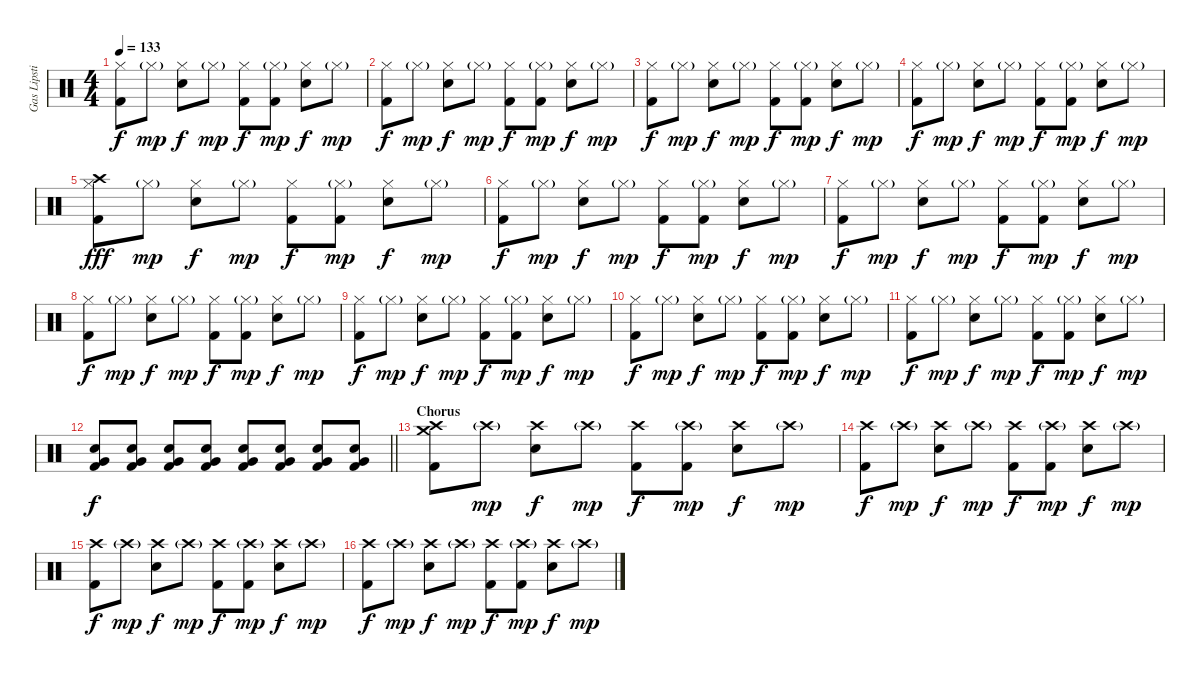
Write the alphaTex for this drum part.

\track ("Gas Lipstick (Drums)" "Gas Lipsti") {instrument percussion}
\staff {score}
\articulation defaults
\ts (4 4)
\tempo 133
\clef neutral
\ks c
("Hi-Hat (closed)" "Kick (hit) 2").8{dy f} "Hi-Hat (closed)"{g}.8{dy mp} ("Hi-Hat (closed)" "Snare (hit) 2").8{dy f} "Hi-Hat (closed)"{g}.8{dy mp} ("Hi-Hat (closed)" "Kick (hit) 2").8{dy f} ("Hi-Hat (closed)"{g} "Kick (hit) 2").8{dy mp} ("Hi-Hat (closed)" "Snare (hit) 2").8{dy f} "Hi-Hat (closed)"{g}.8{dy mp} |
("Hi-Hat (closed)" "Kick (hit) 2").8{dy f} "Hi-Hat (closed)"{g}.8{dy mp} ("Hi-Hat (closed)" "Snare (hit) 2").8{dy f} "Hi-Hat (closed)"{g}.8{dy mp} ("Hi-Hat (closed)" "Kick (hit) 2").8{dy f} ("Hi-Hat (closed)"{g} "Kick (hit) 2").8{dy mp} ("Hi-Hat (closed)" "Snare (hit) 2").8{dy f} "Hi-Hat (closed)"{g}.8{dy mp} |
("Hi-Hat (closed)" "Kick (hit) 2").8{dy f} "Hi-Hat (closed)"{g}.8{dy mp} ("Hi-Hat (closed)" "Snare (hit) 2").8{dy f} "Hi-Hat (closed)"{g}.8{dy mp} ("Hi-Hat (closed)" "Kick (hit) 2").8{dy f} ("Hi-Hat (closed)"{g} "Kick (hit) 2").8{dy mp} ("Hi-Hat (closed)" "Snare (hit) 2").8{dy f} "Hi-Hat (closed)"{g}.8{dy mp} |
("Hi-Hat (closed)" "Kick (hit) 2").8{dy f} "Hi-Hat (closed)"{g}.8{dy mp} ("Hi-Hat (closed)" "Snare (hit) 2").8{dy f} "Hi-Hat (closed)"{g}.8{dy mp} ("Hi-Hat (closed)" "Kick (hit) 2").8{dy f} ("Hi-Hat (closed)"{g} "Kick (hit) 2").8{dy mp} ("Hi-Hat (closed)" "Snare (hit) 2").8{dy f} "Hi-Hat (closed)"{g}.8{dy mp} |
("Crash high (hit)" "Hi-Hat (closed)" "Kick (hit) 2").8{dy fff} "Hi-Hat (closed)"{g}.8{dy mp} ("Hi-Hat (closed)" "Snare (hit) 2").8{dy f} "Hi-Hat (closed)"{g}.8{dy mp} ("Hi-Hat (closed)" "Kick (hit) 2").8{dy f} ("Hi-Hat (closed)"{g} "Kick (hit) 2").8{dy mp} ("Hi-Hat (closed)" "Snare (hit) 2").8{dy f} "Hi-Hat (closed)"{g}.8{dy mp} |
("Hi-Hat (closed)" "Kick (hit) 2").8{dy f} "Hi-Hat (closed)"{g}.8{dy mp} ("Hi-Hat (closed)" "Snare (hit) 2").8{dy f} "Hi-Hat (closed)"{g}.8{dy mp} ("Hi-Hat (closed)" "Kick (hit) 2").8{dy f} ("Hi-Hat (closed)"{g} "Kick (hit) 2").8{dy mp} ("Hi-Hat (closed)" "Snare (hit) 2").8{dy f} "Hi-Hat (closed)"{g}.8{dy mp} |
("Hi-Hat (closed)" "Kick (hit) 2").8{dy f} "Hi-Hat (closed)"{g}.8{dy mp} ("Hi-Hat (closed)" "Snare (hit) 2").8{dy f} "Hi-Hat (closed)"{g}.8{dy mp} ("Hi-Hat (closed)" "Kick (hit) 2").8{dy f} ("Hi-Hat (closed)"{g} "Kick (hit) 2").8{dy mp} ("Hi-Hat (closed)" "Snare (hit) 2").8{dy f} "Hi-Hat (closed)"{g}.8{dy mp} |
("Hi-Hat (closed)" "Kick (hit) 2").8{dy f} "Hi-Hat (closed)"{g}.8{dy mp} ("Hi-Hat (closed)" "Snare (hit) 2").8{dy f} "Hi-Hat (closed)"{g}.8{dy mp} ("Hi-Hat (closed)" "Kick (hit) 2").8{dy f} ("Hi-Hat (closed)"{g} "Kick (hit) 2").8{dy mp} ("Hi-Hat (closed)" "Snare (hit) 2").8{dy f} "Hi-Hat (closed)"{g}.8{dy mp} |
("Hi-Hat (closed)" "Kick (hit) 2").8{dy f} "Hi-Hat (closed)"{g}.8{dy mp} ("Hi-Hat (closed)" "Snare (hit) 2").8{dy f} "Hi-Hat (closed)"{g}.8{dy mp} ("Hi-Hat (closed)" "Kick (hit) 2").8{dy f} ("Hi-Hat (closed)"{g} "Kick (hit) 2").8{dy mp} ("Hi-Hat (closed)" "Snare (hit) 2").8{dy f} "Hi-Hat (closed)"{g}.8{dy mp} |
("Hi-Hat (closed)" "Kick (hit) 2").8{dy f} "Hi-Hat (closed)"{g}.8{dy mp} ("Hi-Hat (closed)" "Snare (hit) 2").8{dy f} "Hi-Hat (closed)"{g}.8{dy mp} ("Hi-Hat (closed)" "Kick (hit) 2").8{dy f} ("Hi-Hat (closed)"{g} "Kick (hit) 2").8{dy mp} ("Hi-Hat (closed)" "Snare (hit) 2").8{dy f} "Hi-Hat (closed)"{g}.8{dy mp} |
("Hi-Hat (closed)" "Kick (hit) 2").8{dy f} "Hi-Hat (closed)"{g}.8{dy mp} ("Hi-Hat (closed)" "Snare (hit) 2").8{dy f} "Hi-Hat (closed)"{g}.8{dy mp} ("Hi-Hat (closed)" "Kick (hit) 2").8{dy f} ("Hi-Hat (closed)"{g} "Kick (hit) 2").8{dy mp} ("Hi-Hat (closed)" "Snare (hit) 2").8{dy f} "Hi-Hat (closed)"{g}.8{dy mp} |
\barLineRight lightlight
("Very Low Tom (hit)" "Snare (hit) 2" "Kick (hit) 2").8{dy f} ("Very Low Tom (hit)" "Snare (hit) 2" "Kick (hit) 2").8 ("Very Low Tom (hit)" "Snare (hit) 2" "Kick (hit) 2").8 ("Very Low Tom (hit)" "Snare (hit) 2" "Kick (hit) 2").8 ("Very Low Tom (hit)" "Snare (hit) 2" "Kick (hit) 2").8 ("Very Low Tom (hit)" "Snare (hit) 2" "Kick (hit) 2").8 ("Very Low Tom (hit)" "Snare (hit) 2" "Kick (hit) 2").8 ("Very Low Tom (hit)" "Snare (hit) 2" "Kick (hit) 2").8 |
\section ("" "Chorus")
("Crash medium (hit)" "Crash high (hit)" "Kick (hit) 2").8 "Crash high (hit)"{g}.8{dy mp} ("Crash high (hit)" "Snare (hit) 2").8{dy f} "Crash high (hit)"{g}.8{dy mp} ("Crash high (hit)" "Kick (hit) 2").8{dy f} ("Crash high (hit)"{g} "Kick (hit) 2").8{dy mp} ("Crash high (hit)" "Snare (hit) 2").8{dy f} "Crash high (hit)"{g}.8{dy mp} |
("Crash high (hit)" "Kick (hit) 2").8{dy f} "Crash high (hit)"{g}.8{dy mp} ("Crash high (hit)" "Snare (hit) 2").8{dy f} "Crash high (hit)"{g}.8{dy mp} ("Crash high (hit)" "Kick (hit) 2").8{dy f} ("Crash high (hit)"{g} "Kick (hit) 2").8{dy mp} ("Crash high (hit)" "Snare (hit) 2").8{dy f} "Crash high (hit)"{g}.8{dy mp} |
("Crash high (hit)" "Kick (hit) 2").8{dy f} "Crash high (hit)"{g}.8{dy mp} ("Crash high (hit)" "Snare (hit) 2").8{dy f} "Crash high (hit)"{g}.8{dy mp} ("Crash high (hit)" "Kick (hit) 2").8{dy f} ("Crash high (hit)"{g} "Kick (hit) 2").8{dy mp} ("Crash high (hit)" "Snare (hit) 2").8{dy f} "Crash high (hit)"{g}.8{dy mp} |
("Crash high (hit)" "Kick (hit) 2").8{dy f} "Crash high (hit)"{g}.8{dy mp} ("Crash high (hit)" "Snare (hit) 2").8{dy f} "Crash high (hit)"{g}.8{dy mp} ("Crash high (hit)" "Kick (hit) 2").8{dy f} ("Crash high (hit)"{g} "Kick (hit) 2").8{dy mp} ("Crash high (hit)" "Snare (hit) 2").8{dy f} "Crash high (hit)"{g}.8{dy mp}
